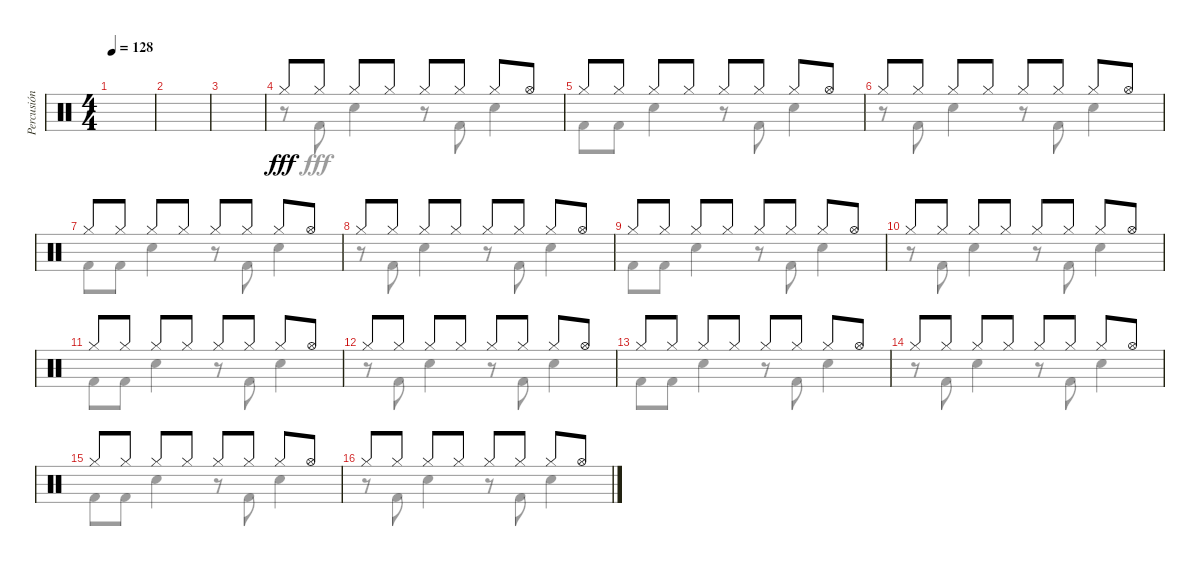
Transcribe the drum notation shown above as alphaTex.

\track ("Percusión" "Percusión") {instrument percussion}
\staff {score}
\articulation defaults
\voice
\ts (4 4)
\tempo 128
\clef neutral
\ks c
|
|
|
"Hi-Hat (closed)".8{dy fff} "Hi-Hat (closed)".8 "Hi-Hat (closed)".8 "Hi-Hat (closed)".8 "Hi-Hat (closed)".8 "Hi-Hat (closed)".8 "Hi-Hat (closed)".8 "Hi-Hat (open)".8 |
"Hi-Hat (closed)".8 "Hi-Hat (closed)".8 "Hi-Hat (closed)".8 "Hi-Hat (closed)".8 "Hi-Hat (closed)".8 "Hi-Hat (closed)".8 "Hi-Hat (closed)".8 "Hi-Hat (open)".8 |
"Hi-Hat (closed)".8 "Hi-Hat (closed)".8 "Hi-Hat (closed)".8 "Hi-Hat (closed)".8 "Hi-Hat (closed)".8 "Hi-Hat (closed)".8 "Hi-Hat (closed)".8 "Hi-Hat (open)".8 |
"Hi-Hat (closed)".8 "Hi-Hat (closed)".8 "Hi-Hat (closed)".8 "Hi-Hat (closed)".8 "Hi-Hat (closed)".8 "Hi-Hat (closed)".8 "Hi-Hat (closed)".8 "Hi-Hat (open)".8 |
"Hi-Hat (closed)".8 "Hi-Hat (closed)".8 "Hi-Hat (closed)".8 "Hi-Hat (closed)".8 "Hi-Hat (closed)".8 "Hi-Hat (closed)".8 "Hi-Hat (closed)".8 "Hi-Hat (open)".8 |
"Hi-Hat (closed)".8 "Hi-Hat (closed)".8 "Hi-Hat (closed)".8 "Hi-Hat (closed)".8 "Hi-Hat (closed)".8 "Hi-Hat (closed)".8 "Hi-Hat (closed)".8 "Hi-Hat (open)".8 |
"Hi-Hat (closed)".8 "Hi-Hat (closed)".8 "Hi-Hat (closed)".8 "Hi-Hat (closed)".8 "Hi-Hat (closed)".8 "Hi-Hat (closed)".8 "Hi-Hat (closed)".8 "Hi-Hat (open)".8 |
"Hi-Hat (closed)".8 "Hi-Hat (closed)".8 "Hi-Hat (closed)".8 "Hi-Hat (closed)".8 "Hi-Hat (closed)".8 "Hi-Hat (closed)".8 "Hi-Hat (closed)".8 "Hi-Hat (open)".8 |
"Hi-Hat (closed)".8 "Hi-Hat (closed)".8 "Hi-Hat (closed)".8 "Hi-Hat (closed)".8 "Hi-Hat (closed)".8 "Hi-Hat (closed)".8 "Hi-Hat (closed)".8 "Hi-Hat (open)".8 |
"Hi-Hat (closed)".8 "Hi-Hat (closed)".8 "Hi-Hat (closed)".8 "Hi-Hat (closed)".8 "Hi-Hat (closed)".8 "Hi-Hat (closed)".8 "Hi-Hat (closed)".8 "Hi-Hat (open)".8 |
"Hi-Hat (closed)".8 "Hi-Hat (closed)".8 "Hi-Hat (closed)".8 "Hi-Hat (closed)".8 "Hi-Hat (closed)".8 "Hi-Hat (closed)".8 "Hi-Hat (closed)".8 "Hi-Hat (open)".8 |
"Hi-Hat (closed)".8 "Hi-Hat (closed)".8 "Hi-Hat (closed)".8 "Hi-Hat (closed)".8 "Hi-Hat (closed)".8 "Hi-Hat (closed)".8 "Hi-Hat (closed)".8 "Hi-Hat (open)".8 |
"Hi-Hat (closed)".8 "Hi-Hat (closed)".8 "Hi-Hat (closed)".8 "Hi-Hat (closed)".8 "Hi-Hat (closed)".8 "Hi-Hat (closed)".8 "Hi-Hat (closed)".8 "Hi-Hat (open)".8
\voice
\clef neutral
\ottava regular
\simile none
\ks c
|
|
|
r.8 "Kick (hit) 2".8{dy fff} "Electric Snare (hit)".4 r.8 "Kick (hit) 2".8 "Electric Snare (hit)".4 |
"Kick (hit) 2".8 "Kick (hit) 2".8 "Electric Snare (hit)".4 r.8 "Kick (hit) 2".8 "Electric Snare (hit)".4 |
r.8 "Kick (hit) 2".8 "Electric Snare (hit)".4 r.8 "Kick (hit) 2".8 "Electric Snare (hit)".4 |
"Kick (hit) 2".8 "Kick (hit) 2".8 "Electric Snare (hit)".4 r.8 "Kick (hit) 2".8 "Electric Snare (hit)".4 |
r.8 "Kick (hit) 2".8 "Electric Snare (hit)".4 r.8 "Kick (hit) 2".8 "Electric Snare (hit)".4 |
"Kick (hit) 2".8 "Kick (hit) 2".8 "Electric Snare (hit)".4 r.8 "Kick (hit) 2".8 "Electric Snare (hit)".4 |
r.8 "Kick (hit) 2".8 "Electric Snare (hit)".4 r.8 "Kick (hit) 2".8 "Electric Snare (hit)".4 |
"Kick (hit) 2".8 "Kick (hit) 2".8 "Electric Snare (hit)".4 r.8 "Kick (hit) 2".8 "Electric Snare (hit)".4 |
r.8 "Kick (hit) 2".8 "Electric Snare (hit)".4 r.8 "Kick (hit) 2".8 "Electric Snare (hit)".4 |
"Kick (hit) 2".8 "Kick (hit) 2".8 "Electric Snare (hit)".4 r.8 "Kick (hit) 2".8 "Electric Snare (hit)".4 |
r.8 "Kick (hit) 2".8 "Electric Snare (hit)".4 r.8 "Kick (hit) 2".8 "Electric Snare (hit)".4 |
"Kick (hit) 2".8 "Kick (hit) 2".8 "Electric Snare (hit)".4 r.8 "Kick (hit) 2".8 "Electric Snare (hit)".4 |
r.8 "Kick (hit) 2".8 "Electric Snare (hit)".4 r.8 "Kick (hit) 2".8 "Electric Snare (hit)".4
